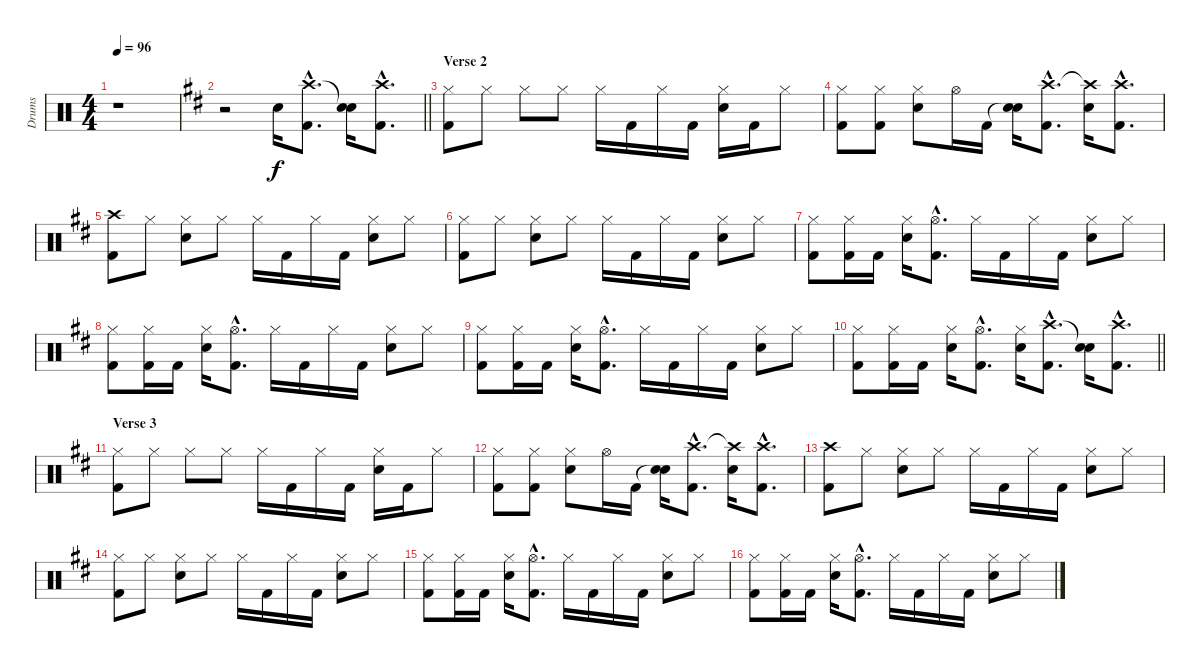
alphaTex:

\track ("Drums" "Drums") {instrument percussion}
\staff {score}
\articulation defaults
\ts (4 4)
\tempo 96
\clef neutral
\ks c
r.1{dy f} |
\barLineRight lightlight
\ks d
r.2 "Electric Snare (hit)".16 ("Crash high (hit)"{hac} "Kick (hit) 2"{hac}).8{d} ("Snare (hit)"{t} "Electric Snare (hit)").16 ("Crash high (hit)"{hac} "Kick (hit) 2"{hac}).8{d} |
\section ("" "Verse 2")
("Hi-Hat (closed)" "Kick (hit) 2").8 "Hi-Hat (closed)".8 "Hi-Hat (closed)".8 "Hi-Hat (closed)".8 "Hi-Hat (closed)".16 "Kick (hit) 2".16 "Hi-Hat (closed)".16 "Kick (hit) 2".16 ("Hi-Hat (closed)" "Electric Snare (hit)").16 "Kick (hit) 2".16 "Hi-Hat (closed)".8 |
("Hi-Hat (closed)" "Kick (hit) 2").8 ("Hi-Hat (closed)" "Kick (hit) 2").8 ("Hi-Hat (closed)" "Electric Snare (hit)").8 "Hi-Hat (open)".16 "Kick (hit) 2".16 ("Snare (hit)"{t} "Electric Snare (hit)").16 ("Crash high (hit)"{hac} "Kick (hit) 2"{hac}).8{d} ("Crash high (hit)"{t} "Electric Snare (hit)").16 ("Crash high (hit)"{hac} "Kick (hit) 2"{hac}).8{d} |
("Crash high (hit)" "Kick (hit) 2").8 "Hi-Hat (closed)".8 ("Hi-Hat (closed)" "Electric Snare (hit)").8 "Hi-Hat (closed)".8 "Hi-Hat (closed)".16 "Kick (hit) 2".16 "Hi-Hat (closed)".16 "Kick (hit) 2".16 ("Hi-Hat (closed)" "Electric Snare (hit)").8 "Hi-Hat (closed)".8 |
("Hi-Hat (closed)" "Kick (hit) 2").8 "Hi-Hat (closed)".8 ("Hi-Hat (closed)" "Electric Snare (hit)").8 "Hi-Hat (closed)".8 "Hi-Hat (closed)".16 "Kick (hit) 2".16 "Hi-Hat (closed)".16 "Kick (hit) 2".16 ("Hi-Hat (closed)" "Electric Snare (hit)").8 "Hi-Hat (closed)".8 |
("Hi-Hat (closed)" "Kick (hit) 2").8 ("Hi-Hat (closed)" "Kick (hit) 2").16 "Kick (hit) 2".16 ("Hi-Hat (closed)" "Electric Snare (hit)").16 ("Hi-Hat (open)"{hac} "Kick (hit) 2"{hac}).8{d} "Hi-Hat (closed)".16 "Kick (hit) 2".16 "Hi-Hat (closed)".16 "Kick (hit) 2".16 ("Hi-Hat (closed)" "Electric Snare (hit)").8 "Hi-Hat (closed)".8 |
("Hi-Hat (closed)" "Kick (hit) 2").8 ("Hi-Hat (closed)" "Kick (hit) 2").16 "Kick (hit) 2".16 ("Hi-Hat (closed)" "Electric Snare (hit)").16 ("Hi-Hat (open)"{hac} "Kick (hit) 2"{hac}).8{d} "Hi-Hat (closed)".16 "Kick (hit) 2".16 "Hi-Hat (closed)".16 "Kick (hit) 2".16 ("Hi-Hat (closed)" "Electric Snare (hit)").8 "Hi-Hat (closed)".8 |
("Hi-Hat (closed)" "Kick (hit) 2").8 ("Hi-Hat (closed)" "Kick (hit) 2").16 "Kick (hit) 2".16 ("Hi-Hat (closed)" "Electric Snare (hit)").16 ("Hi-Hat (open)"{hac} "Kick (hit) 2"{hac}).8{d} "Hi-Hat (closed)".16 "Kick (hit) 2".16 "Hi-Hat (closed)".16 "Kick (hit) 2".16 ("Hi-Hat (closed)" "Electric Snare (hit)").8 "Hi-Hat (closed)".8 |
\barLineRight lightlight
("Hi-Hat (closed)" "Kick (hit) 2").8 ("Hi-Hat (closed)" "Kick (hit) 2").16 "Kick (hit) 2".16 ("Hi-Hat (closed)" "Electric Snare (hit)").16 ("Hi-Hat (open)"{hac} "Kick (hit) 2"{hac}).8{d} ("Hi-Hat (closed)" "Electric Snare (hit)").16 ("Crash high (hit)"{hac} "Kick (hit) 2"{hac}).8{d} ("Snare (hit)"{t} "Electric Snare (hit)").16 ("Crash high (hit)"{hac} "Kick (hit) 2"{hac}).8{d} |
\section ("" "Verse 3")
("Hi-Hat (closed)" "Kick (hit) 2").8 "Hi-Hat (closed)".8 "Hi-Hat (closed)".8 "Hi-Hat (closed)".8 "Hi-Hat (closed)".16 "Kick (hit) 2".16 "Hi-Hat (closed)".16 "Kick (hit) 2".16 ("Hi-Hat (closed)" "Electric Snare (hit)").16 "Kick (hit) 2".16 "Hi-Hat (closed)".8 |
("Hi-Hat (closed)" "Kick (hit) 2").8 ("Hi-Hat (closed)" "Kick (hit) 2").8 ("Hi-Hat (closed)" "Electric Snare (hit)").8 "Hi-Hat (open)".16 "Kick (hit) 2".16 ("Snare (hit)"{t} "Electric Snare (hit)").16 ("Crash high (hit)"{hac} "Kick (hit) 2"{hac}).8{d} ("Crash high (hit)"{t} "Electric Snare (hit)").16 ("Crash high (hit)"{hac} "Kick (hit) 2"{hac}).8{d} |
("Crash high (hit)" "Kick (hit) 2").8 "Hi-Hat (closed)".8 ("Hi-Hat (closed)" "Electric Snare (hit)").8 "Hi-Hat (closed)".8 "Hi-Hat (closed)".16 "Kick (hit) 2".16 "Hi-Hat (closed)".16 "Kick (hit) 2".16 ("Hi-Hat (closed)" "Electric Snare (hit)").8 "Hi-Hat (closed)".8 |
("Hi-Hat (closed)" "Kick (hit) 2").8 "Hi-Hat (closed)".8 ("Hi-Hat (closed)" "Electric Snare (hit)").8 "Hi-Hat (closed)".8 "Hi-Hat (closed)".16 "Kick (hit) 2".16 "Hi-Hat (closed)".16 "Kick (hit) 2".16 ("Hi-Hat (closed)" "Electric Snare (hit)").8 "Hi-Hat (closed)".8 |
("Hi-Hat (closed)" "Kick (hit) 2").8 ("Hi-Hat (closed)" "Kick (hit) 2").16 "Kick (hit) 2".16 ("Hi-Hat (closed)" "Electric Snare (hit)").16 ("Hi-Hat (open)"{hac} "Kick (hit) 2"{hac}).8{d} "Hi-Hat (closed)".16 "Kick (hit) 2".16 "Hi-Hat (closed)".16 "Kick (hit) 2".16 ("Hi-Hat (closed)" "Electric Snare (hit)").8 "Hi-Hat (closed)".8 |
("Hi-Hat (closed)" "Kick (hit) 2").8 ("Hi-Hat (closed)" "Kick (hit) 2").16 "Kick (hit) 2".16 ("Hi-Hat (closed)" "Electric Snare (hit)").16 ("Hi-Hat (open)"{hac} "Kick (hit) 2"{hac}).8{d} "Hi-Hat (closed)".16 "Kick (hit) 2".16 "Hi-Hat (closed)".16 "Kick (hit) 2".16 ("Hi-Hat (closed)" "Electric Snare (hit)").8 "Hi-Hat (closed)".8
